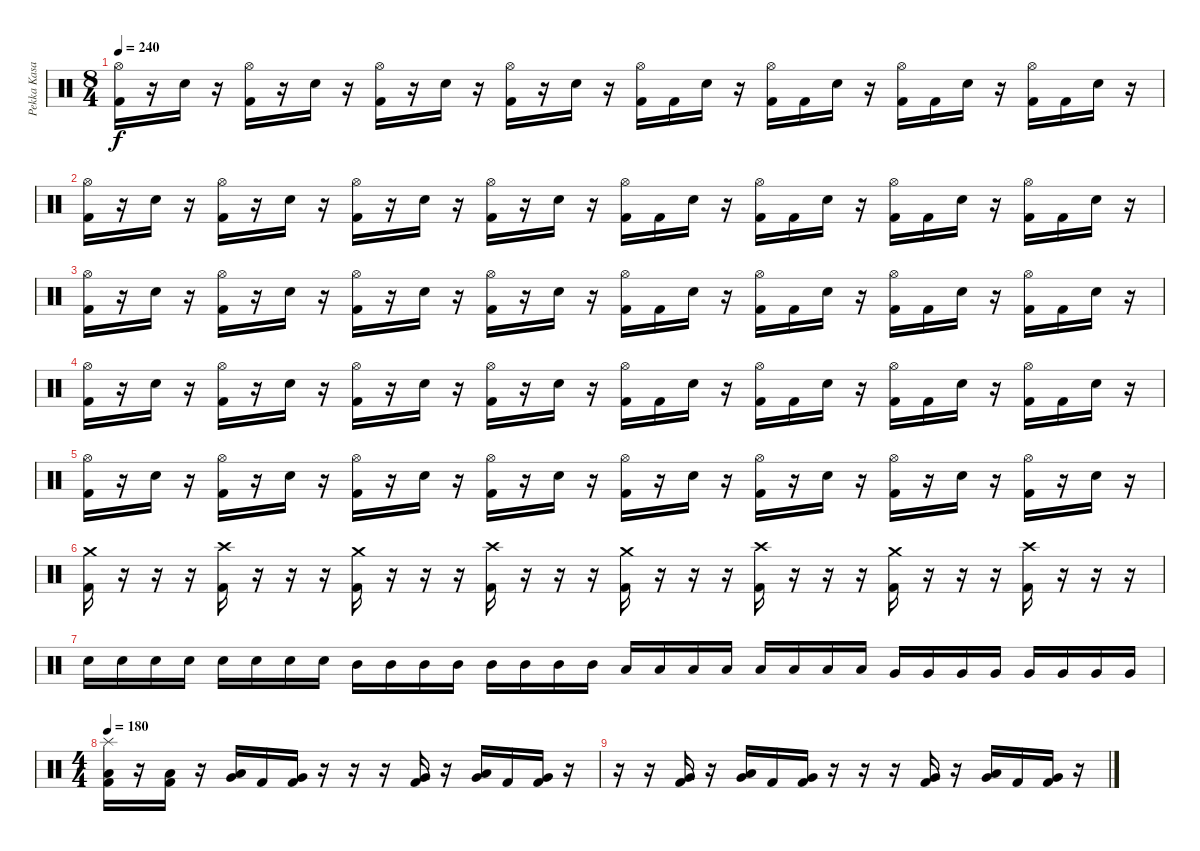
\track ("Pekka Kasari" "Pekka Kasa") {instrument percussion}
\staff {score}
\articulation defaults
\ts (8 4)
\tempo 240
\clef neutral
\ks c
("Hi-Hat (open)" "Kick (hit) 2").16{dy f} r.16 "Electric Snare (hit)".16 r.16 ("Hi-Hat (open)" "Kick (hit) 2").16 r.16 "Electric Snare (hit)".16 r.16 ("Hi-Hat (open)" "Kick (hit) 2").16 r.16 "Electric Snare (hit)".16 r.16 ("Hi-Hat (open)" "Kick (hit) 2").16 r.16 "Electric Snare (hit)".16 r.16 ("Hi-Hat (open)" "Kick (hit) 2").16 "Kick (hit) 2".16 "Electric Snare (hit)".16 r.16 ("Hi-Hat (open)" "Kick (hit) 2").16 "Kick (hit) 2".16 "Electric Snare (hit)".16 r.16 ("Hi-Hat (open)" "Kick (hit) 2").16 "Kick (hit) 2".16 "Electric Snare (hit)".16 r.16 ("Hi-Hat (open)" "Kick (hit) 2").16 "Kick (hit) 2".16 "Electric Snare (hit)".16 r.16 |
("Hi-Hat (open)" "Kick (hit) 2").16 r.16 "Electric Snare (hit)".16 r.16 ("Hi-Hat (open)" "Kick (hit) 2").16 r.16 "Electric Snare (hit)".16 r.16 ("Hi-Hat (open)" "Kick (hit) 2").16 r.16 "Electric Snare (hit)".16 r.16 ("Hi-Hat (open)" "Kick (hit) 2").16 r.16 "Electric Snare (hit)".16 r.16 ("Hi-Hat (open)" "Kick (hit) 2").16 "Kick (hit) 2".16 "Electric Snare (hit)".16 r.16 ("Hi-Hat (open)" "Kick (hit) 2").16 "Kick (hit) 2".16 "Electric Snare (hit)".16 r.16 ("Hi-Hat (open)" "Kick (hit) 2").16 "Kick (hit) 2".16 "Electric Snare (hit)".16 r.16 ("Hi-Hat (open)" "Kick (hit) 2").16 "Kick (hit) 2".16 "Electric Snare (hit)".16 r.16 |
("Hi-Hat (open)" "Kick (hit) 2").16 r.16 "Electric Snare (hit)".16 r.16 ("Hi-Hat (open)" "Kick (hit) 2").16 r.16 "Electric Snare (hit)".16 r.16 ("Hi-Hat (open)" "Kick (hit) 2").16 r.16 "Electric Snare (hit)".16 r.16 ("Hi-Hat (open)" "Kick (hit) 2").16 r.16 "Electric Snare (hit)".16 r.16 ("Hi-Hat (open)" "Kick (hit) 2").16 "Kick (hit) 2".16 "Electric Snare (hit)".16 r.16 ("Hi-Hat (open)" "Kick (hit) 2").16 "Kick (hit) 2".16 "Electric Snare (hit)".16 r.16 ("Hi-Hat (open)" "Kick (hit) 2").16 "Kick (hit) 2".16 "Electric Snare (hit)".16 r.16 ("Hi-Hat (open)" "Kick (hit) 2").16 "Kick (hit) 2".16 "Electric Snare (hit)".16 r.16 |
("Hi-Hat (open)" "Kick (hit) 2").16 r.16 "Electric Snare (hit)".16 r.16 ("Hi-Hat (open)" "Kick (hit) 2").16 r.16 "Electric Snare (hit)".16 r.16 ("Hi-Hat (open)" "Kick (hit) 2").16 r.16 "Electric Snare (hit)".16 r.16 ("Hi-Hat (open)" "Kick (hit) 2").16 r.16 "Electric Snare (hit)".16 r.16 ("Hi-Hat (open)" "Kick (hit) 2").16 "Kick (hit) 2".16 "Electric Snare (hit)".16 r.16 ("Hi-Hat (open)" "Kick (hit) 2").16 "Kick (hit) 2".16 "Electric Snare (hit)".16 r.16 ("Hi-Hat (open)" "Kick (hit) 2").16 "Kick (hit) 2".16 "Electric Snare (hit)".16 r.16 ("Hi-Hat (open)" "Kick (hit) 2").16 "Kick (hit) 2".16 "Electric Snare (hit)".16 r.16 |
("Hi-Hat (open)" "Kick (hit) 2").16 r.16 "Electric Snare (hit)".16 r.16 ("Hi-Hat (open)" "Kick (hit) 2").16 r.16 "Electric Snare (hit)".16 r.16 ("Hi-Hat (open)" "Kick (hit) 2").16 r.16 "Electric Snare (hit)".16 r.16 ("Hi-Hat (open)" "Kick (hit) 2").16 r.16 "Electric Snare (hit)".16 r.16 ("Hi-Hat (open)" "Kick (hit) 2").16 r.16 "Electric Snare (hit)".16 r.16 ("Hi-Hat (open)" "Kick (hit) 2").16 r.16 "Electric Snare (hit)".16 r.16 ("Hi-Hat (open)" "Kick (hit) 2").16 r.16 "Electric Snare (hit)".16 r.16 ("Hi-Hat (open)" "Kick (hit) 2").16 r.16 "Electric Snare (hit)".16 r.16 |
("Crash medium (hit)" "Kick (hit) 2").16 r.16 r.16 r.16 ("Crash high (hit)" "Kick (hit) 2").16 r.16 r.16 r.16 ("Crash medium (hit)" "Kick (hit) 2").16 r.16 r.16 r.16 ("Crash high (hit)" "Kick (hit) 2").16 r.16 r.16 r.16 ("Crash medium (hit)" "Kick (hit) 2").16 r.16 r.16 r.16 ("Crash high (hit)" "Kick (hit) 2").16 r.16 r.16 r.16 ("Crash medium (hit)" "Kick (hit) 2").16 r.16 r.16 r.16 ("Crash high (hit)" "Kick (hit) 2").16 r.16 r.16 r.16 |
"Electric Snare (hit)".16 "Electric Snare (hit)".16 "Electric Snare (hit)".16 "Electric Snare (hit)".16 "Electric Snare (hit)".16 "Electric Snare (hit)".16 "Electric Snare (hit)".16 "Electric Snare (hit)".16 "Mid Tom (hit)".16 "Mid Tom (hit)".16 "Mid Tom (hit)".16 "Mid Tom (hit)".16 "Mid Tom (hit)".16 "Mid Tom (hit)".16 "Mid Tom (hit)".16 "Mid Tom (hit)".16 "Low Tom (hit)".16 "Low Tom (hit)".16 "Low Tom (hit)".16 "Low Tom (hit)".16 "Low Tom (hit)".16 "Low Tom (hit)".16 "Low Tom (hit)".16 "Low Tom (hit)".16 "Very Low Tom (hit)".16 "Very Low Tom (hit)".16 "Very Low Tom (hit)".16 "Very Low Tom (hit)".16 "Very Low Tom (hit)".16 "Very Low Tom (hit)".16 "Very Low Tom (hit)".16 "Very Low Tom (hit)".16 |
\ts (4 4)
\tempo 180
("Splash (hit)" "Low Tom (hit)" "Kick (hit) 2").16 r.16 ("Low Tom (hit)" "Kick (hit) 2").16 r.16 ("Very Low Tom (hit)" "Low Floor Tom (hit)").16 "Kick (hit) 2".16 ("Very Low Tom (hit)" "Kick (hit) 2").16 r.16 r.16 r.16 ("Very Low Tom (hit)" "Kick (hit) 2").16 r.16 ("Very Low Tom (hit)" "Low Floor Tom (hit)").16 "Kick (hit) 2".16 ("Very Low Tom (hit)" "Kick (hit) 2").16 r.16 |
r.16 r.16 ("Very Low Tom (hit)" "Kick (hit) 2").16 r.16 ("Very Low Tom (hit)" "Low Floor Tom (hit)").16 "Kick (hit) 2".16 ("Very Low Tom (hit)" "Kick (hit) 2").16 r.16 r.16 r.16 ("Very Low Tom (hit)" "Kick (hit) 2").16 r.16 ("Very Low Tom (hit)" "Low Floor Tom (hit)").16 "Kick (hit) 2".16 ("Very Low Tom (hit)" "Kick (hit) 2").16 r.16
